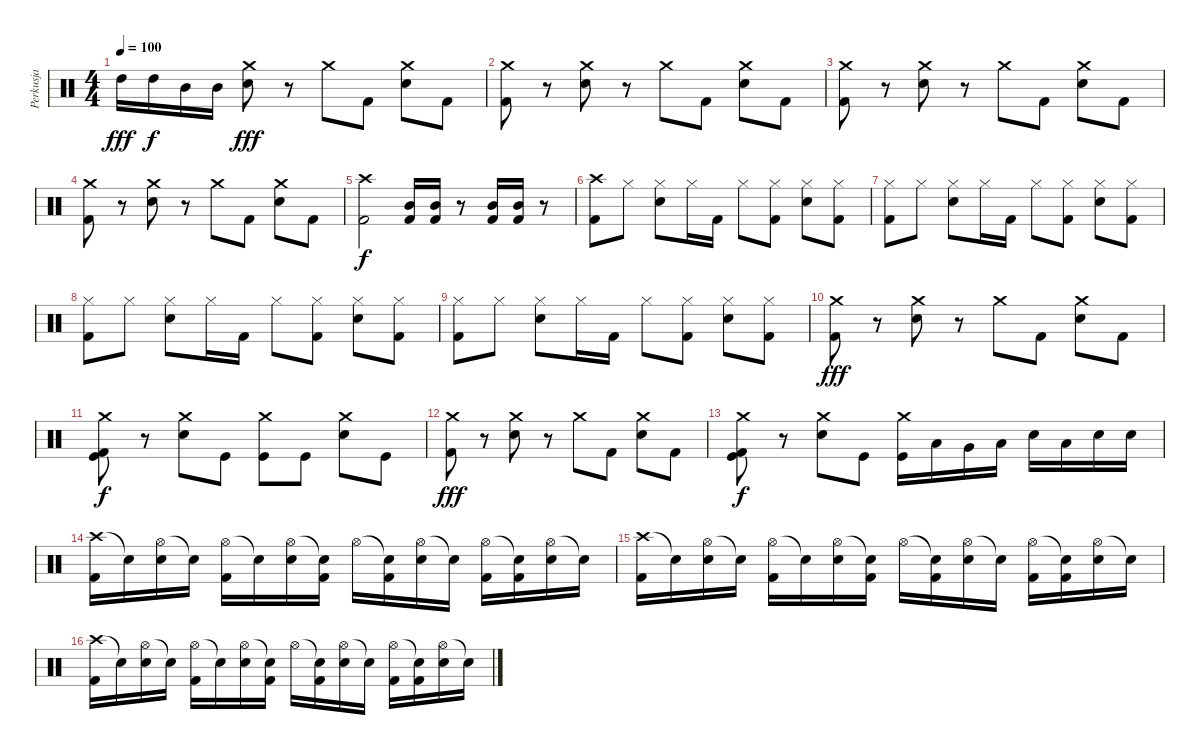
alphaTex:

\track ("Perkusja" "Perkusja") {instrument percussion}
\staff {score}
\articulation defaults
\ts (4 4)
\tempo 100
\clef neutral
\ks c "High Tom (hit)".16{dy fff} "High Tom (hit)".16{dy f} "Mid Tom (hit)".16 "Mid Tom (hit)".16
("Crash medium (hit)" "Snare (hit) 2").8{dy fff} r.8 "Crash medium (hit)".8 "Kick (hit) 2".8 ("Crash medium (hit)" "Snare (hit) 2").8 "Kick (hit) 2".8 |
("Kick (hit) 2" "Crash medium (hit)").8 r.8 ("Crash medium (hit)" "Snare (hit) 2").8 r.8 "Crash medium (hit)".8 "Kick (hit) 2".8 ("Crash medium (hit)" "Snare (hit) 2").8 "Kick (hit) 2".8 |
("Kick (hit) 2" "Crash medium (hit)").8 r.8 ("Crash medium (hit)" "Snare (hit) 2").8 r.8 "Crash medium (hit)".8 "Kick (hit) 2".8 ("Crash medium (hit)" "Snare (hit) 2").8 "Kick (hit) 2".8 |
("Kick (hit) 2" "Crash medium (hit)").8 r.8 ("Crash medium (hit)" "Snare (hit) 2").8 r.8 "Crash medium (hit)".8 "Kick (hit) 2".8 ("Crash medium (hit)" "Snare (hit) 2").8 "Kick (hit) 2".8 |
("Crash high (hit)" "Kick (hit) 2").2{dy f} ("Mid Tom (hit)" "Kick (hit) 2").16 ("Mid Tom (hit)" "Kick (hit) 2").16 r.8 ("Mid Tom (hit)" "Kick (hit) 2").16 ("Mid Tom (hit)" "Kick (hit) 2").16 r.8 |
("Crash high (hit)" "Kick (hit) 2").8 "Hi-Hat (closed)".8 ("Hi-Hat (closed)" "Snare (hit) 2").8 "Hi-Hat (closed)".16 "Kick (hit) 2".16 "Hi-Hat (closed)".8 ("Hi-Hat (closed)" "Kick (hit) 2").8 ("Hi-Hat (closed)" "Snare (hit) 2").8 ("Hi-Hat (closed)" "Kick (hit) 2").8 |
("Hi-Hat (closed)" "Kick (hit) 2").8 "Hi-Hat (closed)".8 ("Hi-Hat (closed)" "Snare (hit) 2").8 "Hi-Hat (closed)".16 "Kick (hit) 2".16 "Hi-Hat (closed)".8 ("Hi-Hat (closed)" "Kick (hit) 2").8 ("Hi-Hat (closed)" "Snare (hit) 2").8 ("Hi-Hat (closed)" "Kick (hit) 2").8 |
("Hi-Hat (closed)" "Kick (hit) 2").8 "Hi-Hat (closed)".8 ("Hi-Hat (closed)" "Snare (hit) 2").8 "Hi-Hat (closed)".16 "Kick (hit) 2".16 "Hi-Hat (closed)".8 ("Hi-Hat (closed)" "Kick (hit) 2").8 ("Hi-Hat (closed)" "Snare (hit) 2").8 ("Hi-Hat (closed)" "Kick (hit) 2").8 |
("Hi-Hat (closed)" "Kick (hit) 2").8 "Hi-Hat (closed)".8 ("Hi-Hat (closed)" "Snare (hit) 2").8 "Hi-Hat (closed)".16 "Kick (hit) 2".16 "Hi-Hat (closed)".8 ("Hi-Hat (closed)" "Kick (hit) 2").8 ("Hi-Hat (closed)" "Snare (hit) 2").8 ("Hi-Hat (closed)" "Kick (hit) 2").8 |
("Kick (hit) 2" "Crash medium (hit)").8{dy fff} r.8 ("Crash medium (hit)" "Snare (hit) 2").8 r.8 "Crash medium (hit)".8 "Kick (hit) 2".8 ("Crash medium (hit)" "Snare (hit) 2").8 "Kick (hit) 2".8 |
("Crash medium (hit)" "Kick (hit) 2" "Kick (hit)").8{dy f} r.8 ("Crash medium (hit)" "Snare (hit) 2").8 "Kick (hit)".8 ("Crash medium (hit)" "Kick (hit)").8 "Kick (hit)".8 ("Crash medium (hit)" "Snare (hit) 2").8 "Kick (hit)".8 |
("Kick (hit) 2" "Crash medium (hit)").8{dy fff} r.8 ("Crash medium (hit)" "Snare (hit) 2").8 r.8 "Crash medium (hit)".8 "Kick (hit) 2".8 ("Crash medium (hit)" "Snare (hit) 2").8 "Kick (hit) 2".8 |
("Crash medium (hit)" "Kick (hit) 2" "Kick (hit)").8{dy f} r.8 ("Crash medium (hit)" "Snare (hit) 2").8 "Kick (hit)".8 ("Crash medium (hit)" "Kick (hit)").16 "Low Floor Tom (hit)".16 "Very Low Tom (hit)".16 "Low Floor Tom (hit)".16 "Snare (hit) 2".16 "Low Floor Tom (hit)".16 "Snare (hit) 2".16 "Snare (hit) 2".16 |
("Crash high (hit)" "Kick (hit) 2").16 "Snare (hit)"{t}.16 ("Hi-Hat (open)" "Snare (hit) 2").16 "Snare (hit)"{t}.16 ("Hi-Hat (open)" "Kick (hit) 2").16 "Snare (hit)"{t}.16 ("Hi-Hat (open)" "Snare (hit) 2").16 ("Snare (hit)"{t} "Kick (hit) 2").16 "Hi-Hat (open)".16 ("Snare (hit)"{t} "Kick (hit) 2").16 ("Hi-Hat (open)" "Snare (hit) 2").16 "Snare (hit)"{t}.16 ("Hi-Hat (open)" "Kick (hit) 2").16 ("Snare (hit)"{t} "Kick (hit) 2").16 ("Hi-Hat (open)" "Snare (hit) 2").16 "Snare (hit)"{t}.16 |
("Crash high (hit)" "Kick (hit) 2").16 "Snare (hit)"{t}.16 ("Hi-Hat (open)" "Snare (hit) 2").16 "Snare (hit)"{t}.16 ("Hi-Hat (open)" "Kick (hit) 2").16 "Snare (hit)"{t}.16 ("Hi-Hat (open)" "Snare (hit) 2").16 ("Snare (hit)"{t} "Kick (hit) 2").16 "Hi-Hat (open)".16 ("Snare (hit)"{t} "Kick (hit) 2").16 ("Hi-Hat (open)" "Snare (hit) 2").16 "Snare (hit)"{t}.16 ("Hi-Hat (open)" "Kick (hit) 2").16 ("Snare (hit)"{t} "Kick (hit) 2").16 ("Hi-Hat (open)" "Snare (hit) 2").16 "Snare (hit)"{t}.16 |
("Crash high (hit)" "Kick (hit) 2").16 "Snare (hit)"{t}.16 ("Hi-Hat (open)" "Snare (hit) 2").16 "Snare (hit)"{t}.16 ("Hi-Hat (open)" "Kick (hit) 2").16 "Snare (hit)"{t}.16 ("Hi-Hat (open)" "Snare (hit) 2").16 ("Snare (hit)"{t} "Kick (hit) 2").16 "Hi-Hat (open)".16 ("Snare (hit)"{t} "Kick (hit) 2").16 ("Hi-Hat (open)" "Snare (hit) 2").16 "Snare (hit)"{t}.16 ("Hi-Hat (open)" "Kick (hit) 2").16 ("Snare (hit)"{t} "Kick (hit) 2").16 ("Hi-Hat (open)" "Snare (hit) 2").16 "Snare (hit)"{t}.16
